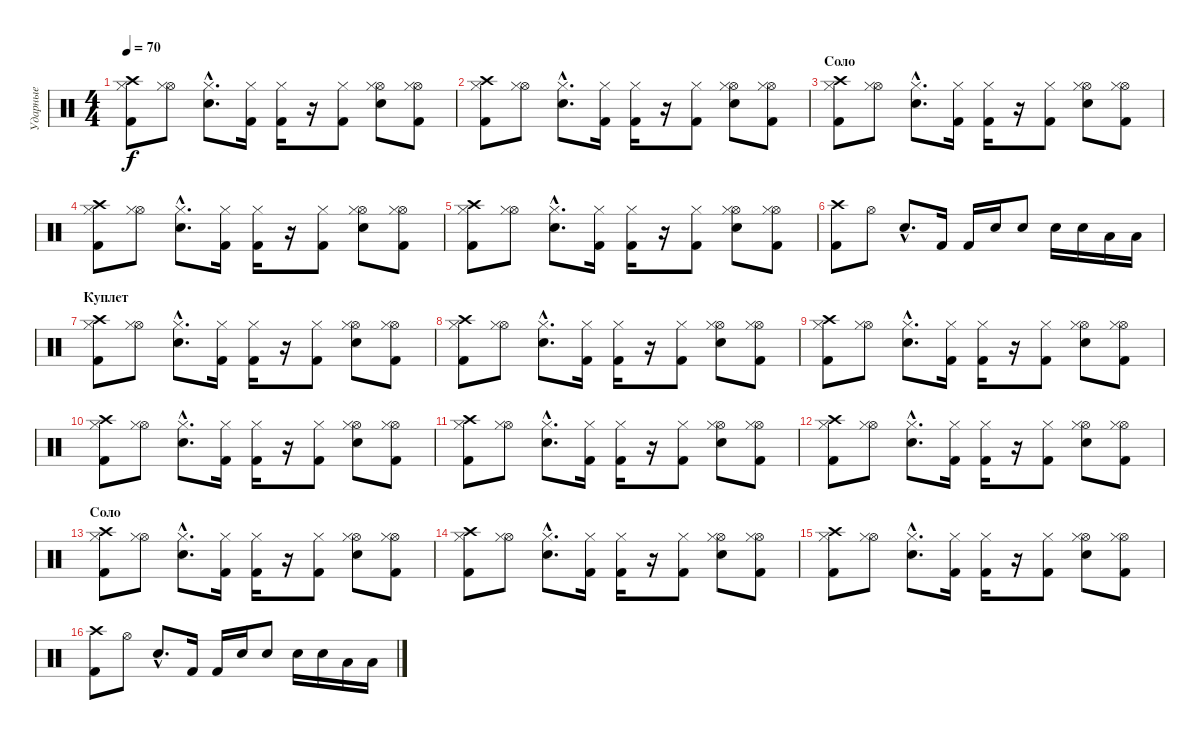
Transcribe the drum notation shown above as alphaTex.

\track ("Ударные" "Ударные") {instrument percussion}
\staff {score}
\articulation defaults
\ts (4 4)
\tempo 70
\clef neutral
\ks c
("Kick (hit) 2" "Crash high (hit)" "Hi-Hat (closed)").8{dy f} ("Hi-Hat (open)" "Hi-Hat (closed)").8 ("Electric Snare (hit)"{hac} "Hi-Hat (closed)"{hac}).8{d} ("Kick (hit) 2" "Hi-Hat (closed)").16 ("Kick (hit) 2" "Hi-Hat (closed)").16 r.16 ("Kick (hit) 2" "Hi-Hat (closed)").8 ("Hi-Hat (open)" "Electric Snare (hit)" "Hi-Hat (closed)").8 ("Hi-Hat (open)" "Kick (hit) 2" "Hi-Hat (closed)").8 |
("Kick (hit) 2" "Crash high (hit)" "Hi-Hat (closed)").8 ("Hi-Hat (open)" "Hi-Hat (closed)").8 ("Electric Snare (hit)"{hac} "Hi-Hat (closed)"{hac}).8{d} ("Kick (hit) 2" "Hi-Hat (closed)").16 ("Kick (hit) 2" "Hi-Hat (closed)").16 r.16 ("Kick (hit) 2" "Hi-Hat (closed)").8 ("Hi-Hat (open)" "Electric Snare (hit)" "Hi-Hat (closed)").8 ("Hi-Hat (open)" "Kick (hit) 2" "Hi-Hat (closed)").8 |
\section ("" "Соло")
("Kick (hit) 2" "Crash high (hit)" "Hi-Hat (closed)").8 ("Hi-Hat (open)" "Hi-Hat (closed)").8 ("Electric Snare (hit)"{hac} "Hi-Hat (closed)"{hac}).8{d} ("Kick (hit) 2" "Hi-Hat (closed)").16 ("Kick (hit) 2" "Hi-Hat (closed)").16 r.16 ("Kick (hit) 2" "Hi-Hat (closed)").8 ("Hi-Hat (open)" "Electric Snare (hit)" "Hi-Hat (closed)").8 ("Hi-Hat (open)" "Kick (hit) 2" "Hi-Hat (closed)").8 |
("Kick (hit) 2" "Crash high (hit)" "Hi-Hat (closed)").8 ("Hi-Hat (open)" "Hi-Hat (closed)").8 ("Electric Snare (hit)"{hac} "Hi-Hat (closed)"{hac}).8{d} ("Kick (hit) 2" "Hi-Hat (closed)").16 ("Kick (hit) 2" "Hi-Hat (closed)").16 r.16 ("Kick (hit) 2" "Hi-Hat (closed)").8 ("Hi-Hat (open)" "Electric Snare (hit)" "Hi-Hat (closed)").8 ("Hi-Hat (open)" "Kick (hit) 2" "Hi-Hat (closed)").8 |
("Kick (hit) 2" "Crash high (hit)" "Hi-Hat (closed)").8 ("Hi-Hat (open)" "Hi-Hat (closed)").8 ("Electric Snare (hit)"{hac} "Hi-Hat (closed)"{hac}).8{d} ("Kick (hit) 2" "Hi-Hat (closed)").16 ("Kick (hit) 2" "Hi-Hat (closed)").16 r.16 ("Kick (hit) 2" "Hi-Hat (closed)").8 ("Hi-Hat (open)" "Electric Snare (hit)" "Hi-Hat (closed)").8 ("Hi-Hat (open)" "Kick (hit) 2" "Hi-Hat (closed)").8 |
("Kick (hit) 2" "Crash high (hit)").8 "Hi-Hat (open)".8 "Electric Snare (hit)"{hac}.8{d} "Kick (hit) 2".16 "Kick (hit) 2".16 "Electric Snare (hit)".16 "Electric Snare (hit)".8 "Electric Snare (hit)".16 "Electric Snare (hit)".16 "Low Tom (hit)".16 "Low Tom (hit)".16 |
\section ("" "Куплет")
("Kick (hit) 2" "Crash high (hit)" "Hi-Hat (closed)").8 ("Hi-Hat (open)" "Hi-Hat (closed)").8 ("Electric Snare (hit)"{hac} "Hi-Hat (closed)"{hac}).8{d} ("Kick (hit) 2" "Hi-Hat (closed)").16 ("Kick (hit) 2" "Hi-Hat (closed)").16 r.16 ("Kick (hit) 2" "Hi-Hat (closed)").8 ("Hi-Hat (open)" "Electric Snare (hit)" "Hi-Hat (closed)").8 ("Hi-Hat (open)" "Kick (hit) 2" "Hi-Hat (closed)").8 |
("Kick (hit) 2" "Crash high (hit)" "Hi-Hat (closed)").8 ("Hi-Hat (open)" "Hi-Hat (closed)").8 ("Electric Snare (hit)"{hac} "Hi-Hat (closed)"{hac}).8{d} ("Kick (hit) 2" "Hi-Hat (closed)").16 ("Kick (hit) 2" "Hi-Hat (closed)").16 r.16 ("Kick (hit) 2" "Hi-Hat (closed)").8 ("Hi-Hat (open)" "Electric Snare (hit)" "Hi-Hat (closed)").8 ("Hi-Hat (open)" "Kick (hit) 2" "Hi-Hat (closed)").8 |
("Kick (hit) 2" "Crash high (hit)" "Hi-Hat (closed)").8 ("Hi-Hat (open)" "Hi-Hat (closed)").8 ("Electric Snare (hit)"{hac} "Hi-Hat (closed)"{hac}).8{d} ("Kick (hit) 2" "Hi-Hat (closed)").16 ("Kick (hit) 2" "Hi-Hat (closed)").16 r.16 ("Kick (hit) 2" "Hi-Hat (closed)").8 ("Hi-Hat (open)" "Electric Snare (hit)" "Hi-Hat (closed)").8 ("Hi-Hat (open)" "Kick (hit) 2" "Hi-Hat (closed)").8 |
("Kick (hit) 2" "Crash high (hit)" "Hi-Hat (closed)").8 ("Hi-Hat (open)" "Hi-Hat (closed)").8 ("Electric Snare (hit)"{hac} "Hi-Hat (closed)"{hac}).8{d} ("Kick (hit) 2" "Hi-Hat (closed)").16 ("Kick (hit) 2" "Hi-Hat (closed)").16 r.16 ("Kick (hit) 2" "Hi-Hat (closed)").8 ("Hi-Hat (open)" "Electric Snare (hit)" "Hi-Hat (closed)").8 ("Hi-Hat (open)" "Kick (hit) 2" "Hi-Hat (closed)").8 |
("Kick (hit) 2" "Crash high (hit)" "Hi-Hat (closed)").8 ("Hi-Hat (open)" "Hi-Hat (closed)").8 ("Electric Snare (hit)"{hac} "Hi-Hat (closed)"{hac}).8{d} ("Kick (hit) 2" "Hi-Hat (closed)").16 ("Kick (hit) 2" "Hi-Hat (closed)").16 r.16 ("Kick (hit) 2" "Hi-Hat (closed)").8 ("Hi-Hat (open)" "Electric Snare (hit)" "Hi-Hat (closed)").8 ("Hi-Hat (open)" "Kick (hit) 2" "Hi-Hat (closed)").8 |
("Kick (hit) 2" "Crash high (hit)" "Hi-Hat (closed)").8 ("Hi-Hat (open)" "Hi-Hat (closed)").8 ("Electric Snare (hit)"{hac} "Hi-Hat (closed)"{hac}).8{d} ("Kick (hit) 2" "Hi-Hat (closed)").16 ("Kick (hit) 2" "Hi-Hat (closed)").16 r.16 ("Kick (hit) 2" "Hi-Hat (closed)").8 ("Hi-Hat (open)" "Electric Snare (hit)" "Hi-Hat (closed)").8 ("Hi-Hat (open)" "Kick (hit) 2" "Hi-Hat (closed)").8 |
\section ("" "Соло")
("Kick (hit) 2" "Crash high (hit)" "Hi-Hat (closed)").8 ("Hi-Hat (open)" "Hi-Hat (closed)").8 ("Electric Snare (hit)"{hac} "Hi-Hat (closed)"{hac}).8{d} ("Kick (hit) 2" "Hi-Hat (closed)").16 ("Kick (hit) 2" "Hi-Hat (closed)").16 r.16 ("Kick (hit) 2" "Hi-Hat (closed)").8 ("Hi-Hat (open)" "Electric Snare (hit)" "Hi-Hat (closed)").8 ("Hi-Hat (open)" "Kick (hit) 2" "Hi-Hat (closed)").8 |
("Kick (hit) 2" "Crash high (hit)" "Hi-Hat (closed)").8 ("Hi-Hat (open)" "Hi-Hat (closed)").8 ("Electric Snare (hit)"{hac} "Hi-Hat (closed)"{hac}).8{d} ("Kick (hit) 2" "Hi-Hat (closed)").16 ("Kick (hit) 2" "Hi-Hat (closed)").16 r.16 ("Kick (hit) 2" "Hi-Hat (closed)").8 ("Hi-Hat (open)" "Electric Snare (hit)" "Hi-Hat (closed)").8 ("Hi-Hat (open)" "Kick (hit) 2" "Hi-Hat (closed)").8 |
("Kick (hit) 2" "Crash high (hit)" "Hi-Hat (closed)").8 ("Hi-Hat (open)" "Hi-Hat (closed)").8 ("Electric Snare (hit)"{hac} "Hi-Hat (closed)"{hac}).8{d} ("Kick (hit) 2" "Hi-Hat (closed)").16 ("Kick (hit) 2" "Hi-Hat (closed)").16 r.16 ("Kick (hit) 2" "Hi-Hat (closed)").8 ("Hi-Hat (open)" "Electric Snare (hit)" "Hi-Hat (closed)").8 ("Hi-Hat (open)" "Kick (hit) 2" "Hi-Hat (closed)").8 |
("Kick (hit) 2" "Crash high (hit)").8 "Hi-Hat (open)".8 "Electric Snare (hit)"{hac}.8{d} "Kick (hit) 2".16 "Kick (hit) 2".16 "Electric Snare (hit)".16 "Electric Snare (hit)".8 "Electric Snare (hit)".16 "Electric Snare (hit)".16 "Low Tom (hit)".16 "Low Tom (hit)".16
